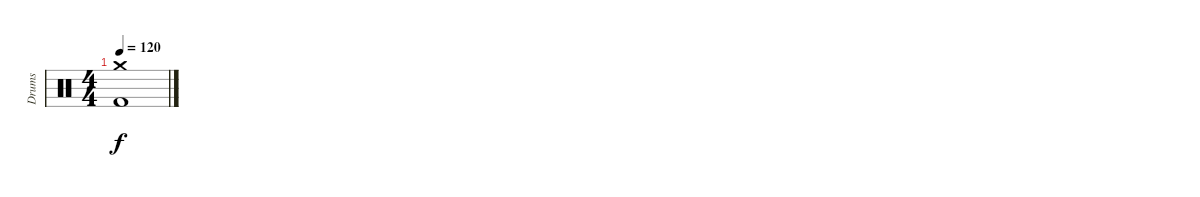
\track ("Drums" "Drums") {instrument percussion}
\staff {score}
\articulation defaults
\ts (4 4)
\tempo 120
\clef neutral
\ks c
("Crash medium (hit)" "Kick (hit) 2").1{dy f}
